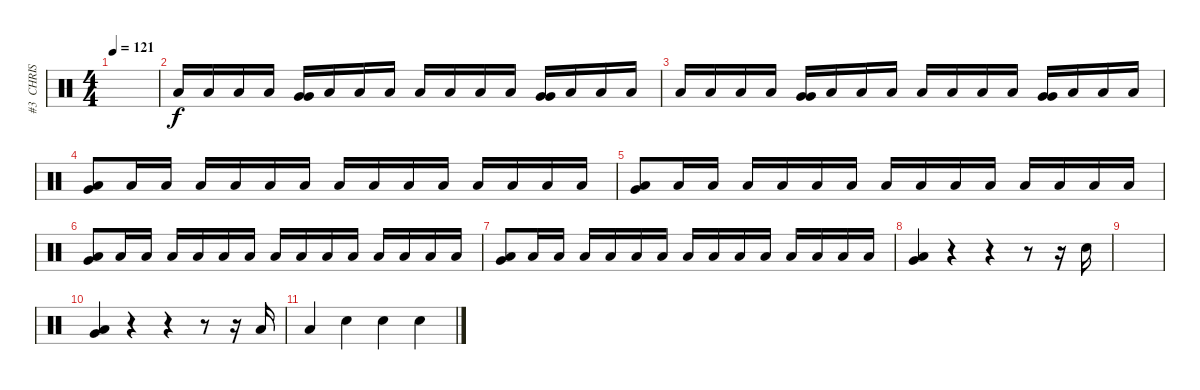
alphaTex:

\track ("#3  CHRIS FEHN" "#3  CHRIS ") {instrument percussion}
\staff {score}
\articulation defaults
\ts (4 4)
\tempo 121
\clef neutral
\ks c
|
"Low Floor Tom (hit)".16 "Low Floor Tom (hit)".16 "Low Floor Tom (hit)".16 "Low Floor Tom (hit)".16 ("Very Low Tom (hit)" "Very Low Tom (hit)").16 "Low Floor Tom (hit)".16 "Low Floor Tom (hit)".16 "Low Floor Tom (hit)".16 "Low Floor Tom (hit)".16 "Low Floor Tom (hit)".16 "Low Floor Tom (hit)".16 "Low Floor Tom (hit)".16 ("Very Low Tom (hit)" "Very Low Tom (hit)").16 "Low Floor Tom (hit)".16 "Low Floor Tom (hit)".16 "Low Floor Tom (hit)".16 |
"Low Floor Tom (hit)".16 "Low Floor Tom (hit)".16 "Low Floor Tom (hit)".16 "Low Floor Tom (hit)".16 ("Very Low Tom (hit)" "Very Low Tom (hit)").16 "Low Floor Tom (hit)".16 "Low Floor Tom (hit)".16 "Low Floor Tom (hit)".16 "Low Floor Tom (hit)".16 "Low Floor Tom (hit)".16 "Low Floor Tom (hit)".16 "Low Floor Tom (hit)".16 ("Very Low Tom (hit)" "Very Low Tom (hit)").16 "Low Floor Tom (hit)".16 "Low Floor Tom (hit)".16 "Low Floor Tom (hit)".16 |
("Very Low Tom (hit)" "Low Floor Tom (hit)").8 "Low Floor Tom (hit)".16 "Low Floor Tom (hit)".16 "Low Floor Tom (hit)".16 "Low Floor Tom (hit)".16 "Low Floor Tom (hit)".16 "Low Floor Tom (hit)".16 "Low Floor Tom (hit)".16 "Low Floor Tom (hit)".16 "Low Floor Tom (hit)".16 "Low Floor Tom (hit)".16 "Low Floor Tom (hit)".16 "Low Floor Tom (hit)".16 "Low Floor Tom (hit)".16 "Low Floor Tom (hit)".16 |
("Very Low Tom (hit)" "Low Floor Tom (hit)").8 "Low Floor Tom (hit)".16 "Low Floor Tom (hit)".16 "Low Floor Tom (hit)".16 "Low Floor Tom (hit)".16 "Low Floor Tom (hit)".16 "Low Floor Tom (hit)".16 "Low Floor Tom (hit)".16 "Low Floor Tom (hit)".16 "Low Floor Tom (hit)".16 "Low Floor Tom (hit)".16 "Low Floor Tom (hit)".16 "Low Floor Tom (hit)".16 "Low Floor Tom (hit)".16 "Low Floor Tom (hit)".16 |
("Very Low Tom (hit)" "Low Floor Tom (hit)").8 "Low Floor Tom (hit)".16 "Low Floor Tom (hit)".16 "Low Floor Tom (hit)".16 "Low Floor Tom (hit)".16 "Low Floor Tom (hit)".16 "Low Floor Tom (hit)".16 "Low Floor Tom (hit)".16 "Low Floor Tom (hit)".16 "Low Floor Tom (hit)".16 "Low Floor Tom (hit)".16 "Low Floor Tom (hit)".16 "Low Floor Tom (hit)".16 "Low Floor Tom (hit)".16 "Low Floor Tom (hit)".16 |
("Very Low Tom (hit)" "Low Floor Tom (hit)").8 "Low Floor Tom (hit)".16 "Low Floor Tom (hit)".16 "Low Floor Tom (hit)".16 "Low Floor Tom (hit)".16 "Low Floor Tom (hit)".16 "Low Floor Tom (hit)".16 "Low Floor Tom (hit)".16 "Low Floor Tom (hit)".16 "Low Floor Tom (hit)".16 "Low Floor Tom (hit)".16 "Low Floor Tom (hit)".16 "Low Floor Tom (hit)".16 "Low Floor Tom (hit)".16 "Low Floor Tom (hit)".16 |
\section ("" "")
("Very Low Tom (hit)" "Low Floor Tom (hit)").4 r.4 r.4 r.8 r.16 "Snare (hit)"{x}.16 |
|
("Very Low Tom (hit)" "Low Floor Tom (hit)").4 r.4 r.4 r.8 r.16 "Low Tom (hit)".16 |
"Low Floor Tom (hit)".4 "Snare (hit)"{x}.4 "Snare (hit)"{x}.4 "Snare (hit)"{x}.4
